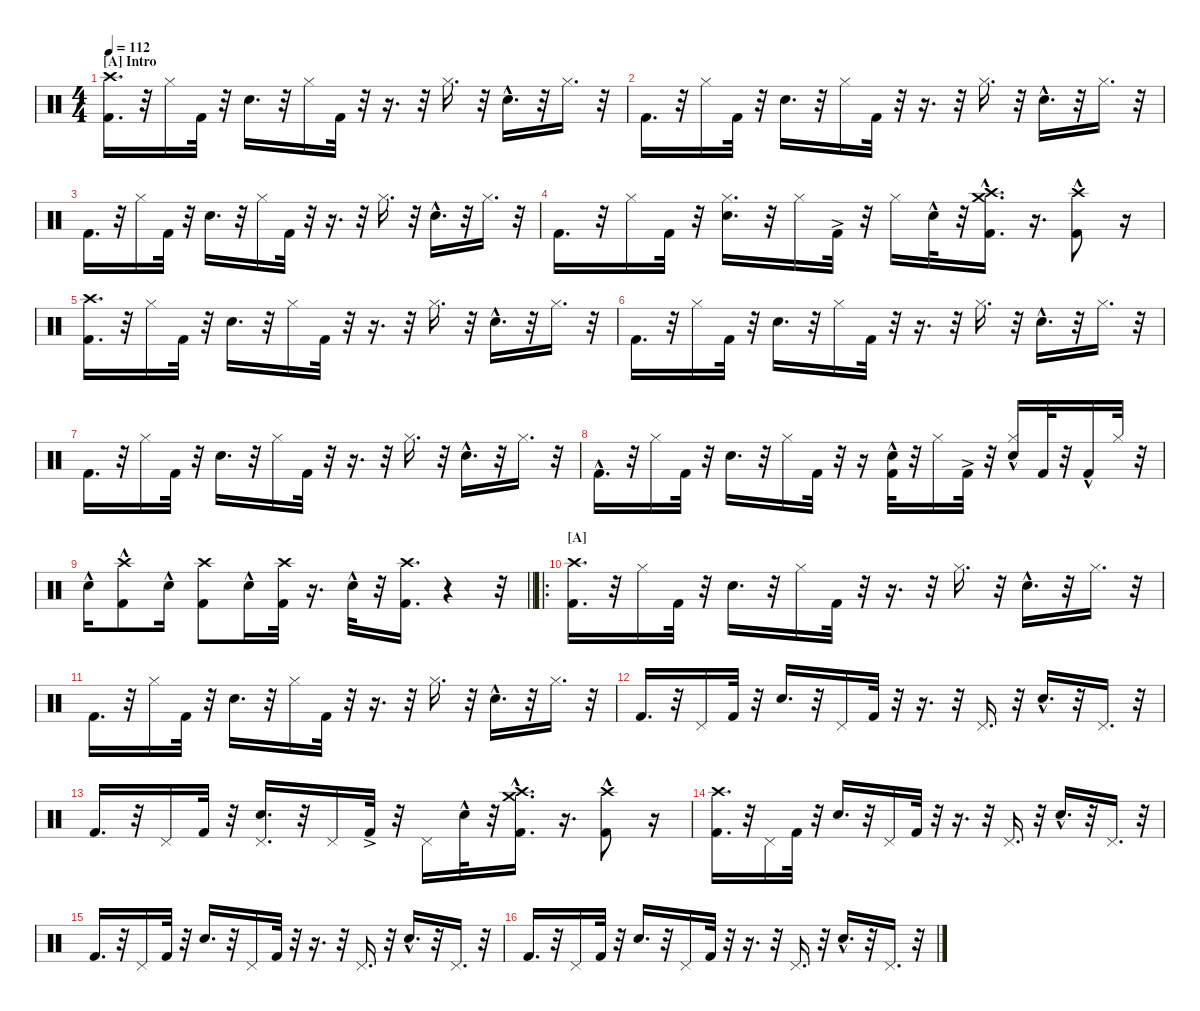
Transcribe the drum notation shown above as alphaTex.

\hideDynamics
\bracketExtendMode nobrackets
\singleTrackTrackNamePolicy hidden
\multiTrackTrackNamePolicy hidden
\firstSystemTrackNameMode fullname
\firstSystemTrackNameOrientation horizontal
\otherSystemsTrackNameOrientation horizontal
\track ("Drumkit" "Drums") {instrument percussion}
\staff {score}
\articulation defaults
\ts (4 4)
\beaming (8 2 2 2 2)
\section ("A" "Intro")
\tempo 112
\clef neutral
\ks c
("Crash high (hit)" "Kick (hit) 2").16{d dy f beam Down} r.32{beam Down} "Hi-Hat (closed)".16{beam Down} "Kick (hit) 2".32{beam Down} r.32{beam Down} "Snare (hit) 2".16{d beam Down} r.32{beam Down} "Hi-Hat (closed)".16{beam Down} "Kick (hit) 2".32{beam Down} r.32{beam Down} r.16{d beam Down} r.32{beam Down} "Hi-Hat (closed)".16{d beam Down} r.32{beam Down} "Snare (hit) 2"{hac}.16{d beam Down} r.32{beam Down} "Hi-Hat (closed)".16{d beam Down} r.32{beam Down} |
"Kick (hit) 2".16{d beam Down} r.32{beam Down} "Hi-Hat (closed)".16{beam Down} "Kick (hit) 2".32{beam Down} r.32{beam Down} "Snare (hit) 2".16{d beam Down} r.32{beam Down} "Hi-Hat (closed)".16{beam Down} "Kick (hit) 2".32{beam Down} r.32{beam Down} r.16{d beam Down} r.32{beam Down} "Hi-Hat (closed)".16{d beam Down} r.32{beam Down} "Snare (hit) 2"{hac}.16{d beam Down} r.32{beam Down} "Hi-Hat (closed)".16{d beam Down} r.32{beam Down} |
"Kick (hit) 2".16{d beam Down} r.32{beam Down} "Hi-Hat (closed)".16{beam Down} "Kick (hit) 2".32{beam Down} r.32{beam Down} "Snare (hit) 2".16{d beam Down} r.32{beam Down} "Hi-Hat (closed)".16{beam Down} "Kick (hit) 2".32{beam Down} r.32{beam Down} r.16{d beam Down} r.32{beam Down} "Hi-Hat (closed)".16{d beam Down} r.32{beam Down} "Snare (hit) 2"{hac}.16{d beam Down} r.32{beam Down} "Hi-Hat (closed)".16{d beam Down} r.32{beam Down} |
"Kick (hit) 2".16{d beam Down} r.32{beam Down} "Hi-Hat (closed)".16{beam Down} "Kick (hit) 2".32{beam Down} r.32{beam Down} ("Snare (hit) 2" "Hi-Hat (closed)").16{d beam Down} r.32{beam Down} "Hi-Hat (closed)".16{beam Down} "Kick (hit) 2"{ac}.32{beam Down} r.32{beam Down} "Hi-Hat (closed)".16{beam Down} "Snare (hit) 2"{hac}.32{beam Down} r.32{beam Down} ("Crash high (hit)" "Kick (hit) 2" "Crash medium (hit)"{hac}).16{d beam Down} r.16{d beam Down} ("Kick (hit) 2" "Crash high (hit)"{hac}).8{beam Down} r.16{beam Down} |
("Crash high (hit)" "Kick (hit) 2").16{d beam Down} r.32{beam Down} "Hi-Hat (closed)".16{beam Down} "Kick (hit) 2".32{beam Down} r.32{beam Down} "Snare (hit) 2".16{d beam Down} r.32{beam Down} "Hi-Hat (closed)".16{beam Down} "Kick (hit) 2".32{beam Down} r.32{beam Down} r.16{d beam Down} r.32{beam Down} "Hi-Hat (closed)".16{d beam Down} r.32{beam Down} "Snare (hit) 2"{hac}.16{d beam Down} r.32{beam Down} "Hi-Hat (closed)".16{d beam Down} r.32{beam Down} |
"Kick (hit) 2".16{d beam Down} r.32{beam Down} "Hi-Hat (closed)".16{beam Down} "Kick (hit) 2".32{beam Down} r.32{beam Down} "Snare (hit) 2".16{d beam Down} r.32{beam Down} "Hi-Hat (closed)".16{beam Down} "Kick (hit) 2".32{beam Down} r.32{beam Down} r.16{d beam Down} r.32{beam Down} "Hi-Hat (closed)".16{d beam Down} r.32{beam Down} "Snare (hit) 2"{hac}.16{d beam Down} r.32{beam Down} "Hi-Hat (closed)".16{d beam Down} r.32{beam Down} |
"Kick (hit) 2".16{d beam Down} r.32{beam Down} "Hi-Hat (closed)".16{beam Down} "Kick (hit) 2".32{beam Down} r.32{beam Down} "Snare (hit) 2".16{d beam Down} r.32{beam Down} "Hi-Hat (closed)".16{beam Down} "Kick (hit) 2".32{beam Down} r.32{beam Down} r.16{d beam Down} r.32{beam Down} "Hi-Hat (closed)".16{d beam Down} r.32{beam Down} "Snare (hit) 2"{hac}.16{d beam Down} r.32{beam Down} "Hi-Hat (closed)".16{d beam Down} r.32{beam Down} |
"Kick (hit) 2"{hac}.16{d beam Down} r.32{beam Down} "Hi-Hat (closed)".16{beam Down} "Kick (hit) 2".32{beam Down} r.32{beam Down} "Snare (hit) 2".16{d beam Down} r.32{beam Down} "Hi-Hat (closed)".16{beam Down} "Kick (hit) 2".32{beam Down} r.32{beam Down} r.16{beam Down} ("Snare (hit) 2" "Kick (hit) 2"{hac}).32{beam Down} r.32{beam Down} "Hi-Hat (closed)".16{beam Down} "Kick (hit) 2"{ac}.32{beam Down} r.32{beam Down} ("Snare (hit) 2"{hac} "Hi-Hat (closed)").16{beam Up} "Kick (hit) 2".32{beam Up} r.32{beam Up} "Kick (hit) 2"{hac}.16{beam Up} "Hi-Hat (closed)".32{beam Up} r.32{beam Up} |
\barLineRight lightlight "Snare (hit) 2"{hac}.16{beam Down}
("Crash high (hit)" "Kick (hit) 2"{hac}).8{beam Down} "Snare (hit) 2"{hac}.16{beam Down} ("Crash high (hit)" "Kick (hit) 2").8{beam Down} "Snare (hit) 2"{hac}.16{beam Down} ("Crash high (hit)" "Kick (hit) 2").32{beam Down} r.16{d beam Down} "Snare (hit) 2"{hac}.32{beam Down} r.32{beam Down} ("Crash high (hit)" "Kick (hit) 2").16{d beam Down} r.4{beam Down} r.32{beam Down} |
\ro
\section ("A" "")
("Crash high (hit)" "Kick (hit) 2").16{d beam Down} r.32{beam Down} "Hi-Hat (closed)".16{beam Down} "Kick (hit) 2".32{beam Down} r.32{beam Down} "Snare (hit) 2".16{d beam Down} r.32{beam Down} "Hi-Hat (closed)".16{beam Down} "Kick (hit) 2".32{beam Down} r.32{beam Down} r.16{d beam Down} r.32{beam Down} "Hi-Hat (closed)".16{d beam Down} r.32{beam Down} "Snare (hit) 2"{hac}.16{d beam Down} r.32{beam Down} "Hi-Hat (closed)".16{d beam Down} r.32{beam Down} |
"Kick (hit) 2".16{d beam Down} r.32{beam Down} "Hi-Hat (closed)".16{beam Down} "Kick (hit) 2".32{beam Down} r.32{beam Down} "Snare (hit) 2".16{d beam Down} r.32{beam Down} "Hi-Hat (closed)".16{beam Down} "Kick (hit) 2".32{beam Down} r.32{beam Down} r.16{d beam Down} r.32{beam Down} "Hi-Hat (closed)".16{d beam Down} r.32{beam Down} "Snare (hit) 2"{hac}.16{d beam Down} r.32{beam Down} "Hi-Hat (closed)".16{d beam Down} r.32{beam Down} |
"Kick (hit) 2".16{d beam Up} r.32{beam Up} "Pedal Hi-Hat (hit)".16{beam Up} "Kick (hit) 2".32{beam Up} r.32{beam Up} "Snare (hit) 2".16{d beam Up} r.32{beam Up} "Pedal Hi-Hat (hit)".16{beam Up} "Kick (hit) 2".32{beam Up} r.32{beam Up} r.16{d beam Up} r.32{beam Up} "Pedal Hi-Hat (hit)".16{d beam Up} r.32{beam Up} "Snare (hit) 2"{hac}.16{d beam Up} r.32{beam Up} "Pedal Hi-Hat (hit)".16{d beam Up} r.32{beam Up} |
"Kick (hit) 2".16{d beam Up} r.32{beam Up} "Pedal Hi-Hat (hit)".16{beam Up} "Kick (hit) 2".32{beam Up} r.32{beam Up} ("Pedal Hi-Hat (hit)" "Snare (hit) 2").16{d beam Up} r.32{beam Up} "Pedal Hi-Hat (hit)".16{beam Up} "Kick (hit) 2"{ac}.32{beam Up} r.32{beam Up} "Pedal Hi-Hat (hit)".16{beam Down} "Snare (hit) 2"{hac}.32{beam Down} r.32{beam Down} ("Crash high (hit)" "Kick (hit) 2" "Crash medium (hit)"{hac}).16{d beam Down} r.16{d beam Down} ("Kick (hit) 2" "Crash high (hit)"{hac}).8{beam Down} r.16{beam Down} |
("Crash high (hit)" "Kick (hit) 2").16{d beam Down} r.32{beam Down} "Pedal Hi-Hat (hit)".16{beam Down} "Kick (hit) 2".32{beam Down} r.32{beam Down} "Snare (hit) 2".16{d beam Up} r.32{beam Up} "Pedal Hi-Hat (hit)".16{beam Up} "Kick (hit) 2".32{beam Up} r.32{beam Up} r.16{d beam Up} r.32{beam Up} "Pedal Hi-Hat (hit)".16{d beam Up} r.32{beam Up} "Snare (hit) 2"{hac}.16{d beam Up} r.32{beam Up} "Pedal Hi-Hat (hit)".16{d beam Up} r.32{beam Up} |
"Kick (hit) 2".16{d beam Up} r.32{beam Up} "Pedal Hi-Hat (hit)".16{beam Up} "Kick (hit) 2".32{beam Up} r.32{beam Up} "Snare (hit) 2".16{d beam Up} r.32{beam Up} "Pedal Hi-Hat (hit)".16{beam Up} "Kick (hit) 2".32{beam Up} r.32{beam Up} r.16{d beam Up} r.32{beam Up} "Pedal Hi-Hat (hit)".16{d beam Up} r.32{beam Up} "Snare (hit) 2"{hac}.16{d beam Up} r.32{beam Up} "Pedal Hi-Hat (hit)".16{d beam Up} r.32{beam Up} |
\scale
0.254399 "Kick (hit) 2".16{d beam Up} r.32{beam Up} "Pedal Hi-Hat (hit)".16{beam Up} "Kick (hit) 2".32{beam Up} r.32{beam Up} "Snare (hit) 2".16{d beam Up} r.32{beam Up} "Pedal Hi-Hat (hit)".16{beam Up} "Kick (hit) 2".32{beam Up} r.32{beam Up} r.16{d beam Up} r.32{beam Up} "Pedal Hi-Hat (hit)".16{d beam Up} r.32{beam Up} "Snare (hit) 2"{hac}.16{d beam Up} r.32{beam Up} "Pedal Hi-Hat (hit)".16{d beam Up} r.32{beam Up}
